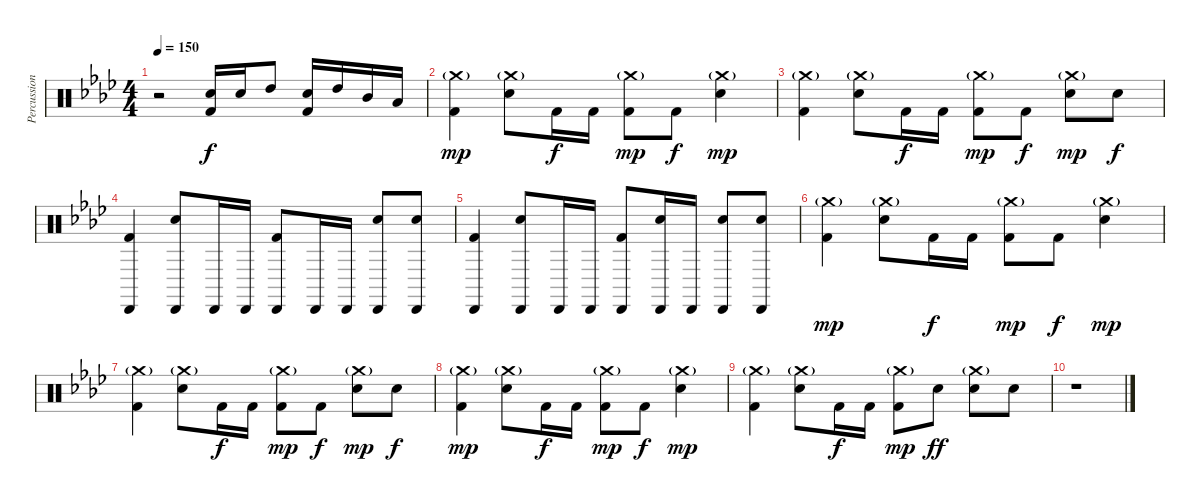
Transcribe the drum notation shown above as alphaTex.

\track ("Percussions 2" "Percussion") {instrument percussion}
\staff {score}
\articulation defaults
\ts (4 4)
\tempo 150
\clef neutral
\ks ab
r.2{dy f} ("Snare (hit) 2" "Kick (hit) 2").16 "Snare (hit) 2".16 "High Tom (hit)".8 ("Snare (hit) 2" "Kick (hit) 2").16 "High Tom (hit)".16 "Mid Tom (hit)".16 "Low Tom (hit)".16 |
("Crash medium (hit)"{g} "Kick (hit) 2").4{dy mp} ("Crash medium (hit)"{g} "Snare (hit) 2").8 "Kick (hit) 2".16{dy f} "Kick (hit) 2".16 ("Crash medium (hit)"{g} "Kick (hit) 2").8{dy mp} "Kick (hit) 2".8{dy f} ("Crash medium (hit)"{g} "Snare (hit) 2").4{dy mp} |
("Crash medium (hit)"{g} "Kick (hit) 2").4 ("Crash medium (hit)"{g} "Snare (hit) 2").8 "Kick (hit) 2".16{dy f} "Kick (hit) 2".16 ("Crash medium (hit)"{g} "Kick (hit) 2").8{dy mp} "Kick (hit) 2".8{dy f} ("Crash medium (hit)"{g} "Snare (hit) 2").8{dy mp} "Snare (hit) 2".8{dy f} |
("Cabasa (hit)" "Kick (hit) 2").4 ("Cabasa (hit)" "Snare (hit) 2").8 "Cabasa (hit)".16 "Cabasa (hit)".16 ("Cabasa (hit)" "Kick (hit) 2").8 "Cabasa (hit)".16 "Cabasa (hit)".16 ("Cabasa (hit)" "Snare (hit) 2").8 ("Cabasa (hit)" "Snare (hit) 2").8 |
("Cabasa (hit)" "Kick (hit) 2").4 ("Cabasa (hit)" "Snare (hit) 2").8 "Cabasa (hit)".16 "Cabasa (hit)".16 ("Cabasa (hit)" "Kick (hit) 2").8 ("Cabasa (hit)" "Snare (hit) 2").16 "Cabasa (hit)".16 ("Cabasa (hit)" "Snare (hit) 2").8 ("Cabasa (hit)" "Snare (hit) 2").8 |
("Crash medium (hit)"{g} "Kick (hit) 2").4{dy mp} ("Crash medium (hit)"{g} "Snare (hit) 2").8 "Kick (hit) 2".16{dy f} "Kick (hit) 2".16 ("Crash medium (hit)"{g} "Kick (hit) 2").8{dy mp} "Kick (hit) 2".8{dy f} ("Crash medium (hit)"{g} "Snare (hit) 2").4{dy mp} |
("Crash medium (hit)"{g} "Kick (hit) 2").4 ("Crash medium (hit)"{g} "Snare (hit) 2").8 "Kick (hit) 2".16{dy f} "Kick (hit) 2".16 ("Crash medium (hit)"{g} "Kick (hit) 2").8{dy mp} "Kick (hit) 2".8{dy f} ("Crash medium (hit)"{g} "Snare (hit) 2").8{dy mp} "Snare (hit) 2".8{dy f} |
("Crash medium (hit)"{g} "Kick (hit) 2").4{dy mp} ("Crash medium (hit)"{g} "Snare (hit) 2").8 "Kick (hit) 2".16{dy f} "Kick (hit) 2".16 ("Crash medium (hit)"{g} "Kick (hit) 2").8{dy mp} "Kick (hit) 2".8{dy f} ("Crash medium (hit)"{g} "Snare (hit) 2").4{dy mp} |
("Crash medium (hit)"{g} "Kick (hit) 2").4 ("Crash medium (hit)"{g} "Snare (hit) 2").8 "Kick (hit) 2".16{dy f} "Kick (hit) 2".16 ("Crash medium (hit)"{g} "Kick (hit) 2").8{dy mp} "Snare (hit) 2".8{dy ff} ("Crash medium (hit)"{g} "Snare (hit) 2").8 "Snare (hit) 2".8 |
r.1
